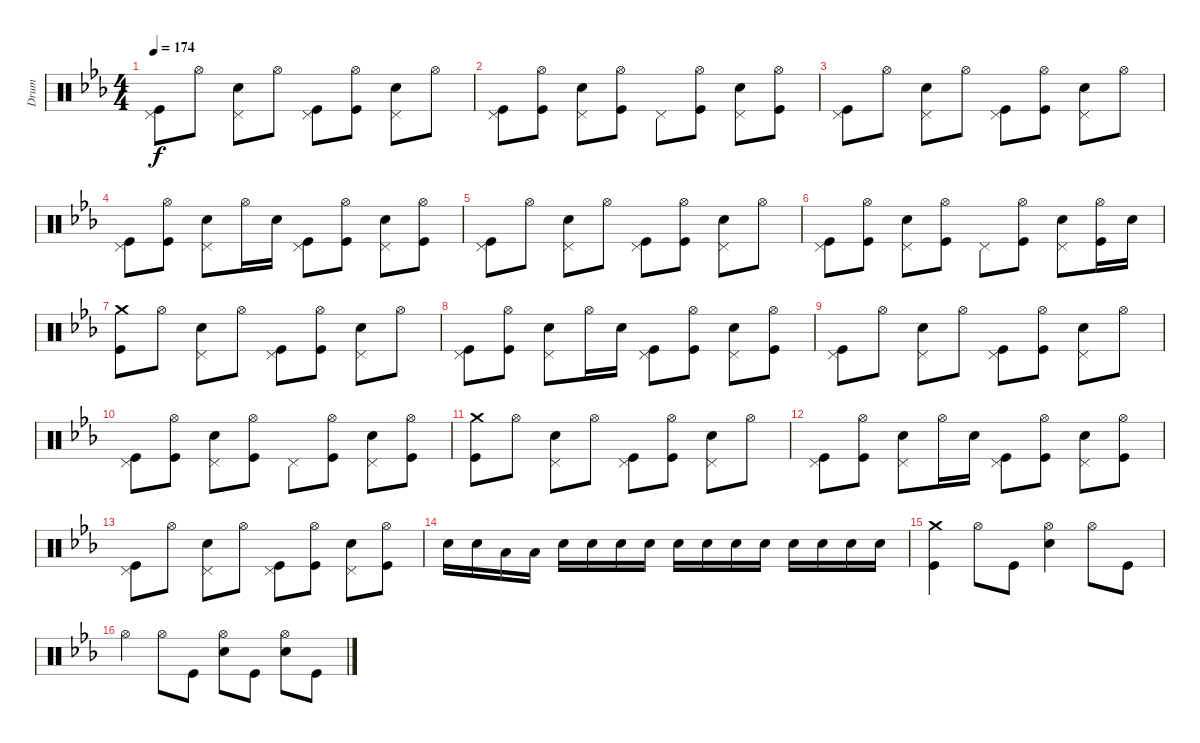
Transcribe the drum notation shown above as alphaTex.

\track ("Drum" "Drum") {instrument percussion}
\staff {score}
\articulation defaults
\ts (4 4)
\tempo 174
\clef neutral
\ks eb
("Pedal Hi-Hat (hit)" "Kick (hit)").8{dy f} "Hi-Hat (open)".8 ("Pedal Hi-Hat (hit)" "Snare (hit) 2").8 "Hi-Hat (open)".8 ("Pedal Hi-Hat (hit)" "Kick (hit)").8 ("Hi-Hat (open)" "Kick (hit)").8 ("Pedal Hi-Hat (hit)" "Snare (hit) 2").8 "Hi-Hat (open)".8 |
("Pedal Hi-Hat (hit)" "Kick (hit)").8 ("Hi-Hat (open)" "Kick (hit)").8 ("Pedal Hi-Hat (hit)" "Snare (hit) 2").8 ("Hi-Hat (open)" "Kick (hit)").8 "Pedal Hi-Hat (hit)".8 ("Hi-Hat (open)" "Kick (hit)").8 ("Pedal Hi-Hat (hit)" "Snare (hit) 2").8 ("Hi-Hat (open)" "Kick (hit)").8 |
("Pedal Hi-Hat (hit)" "Kick (hit)").8 "Hi-Hat (open)".8 ("Pedal Hi-Hat (hit)" "Snare (hit) 2").8 "Hi-Hat (open)".8 ("Pedal Hi-Hat (hit)" "Kick (hit)").8 ("Hi-Hat (open)" "Kick (hit)").8 ("Pedal Hi-Hat (hit)" "Snare (hit) 2").8 "Hi-Hat (open)".8 |
("Pedal Hi-Hat (hit)" "Kick (hit)").8 ("Hi-Hat (open)" "Kick (hit)").8 ("Pedal Hi-Hat (hit)" "Snare (hit) 2").8 "Hi-Hat (open)".16 "Snare (hit) 2".16 ("Pedal Hi-Hat (hit)" "Kick (hit)").8 ("Hi-Hat (open)" "Kick (hit)").8 ("Pedal Hi-Hat (hit)" "Snare (hit) 2").8 ("Hi-Hat (open)" "Kick (hit)").8 |
("Pedal Hi-Hat (hit)" "Kick (hit)").8 "Hi-Hat (open)".8 ("Pedal Hi-Hat (hit)" "Snare (hit) 2").8 "Hi-Hat (open)".8 ("Pedal Hi-Hat (hit)" "Kick (hit)").8 ("Hi-Hat (open)" "Kick (hit)").8 ("Pedal Hi-Hat (hit)" "Snare (hit) 2").8 "Hi-Hat (open)".8 |
("Pedal Hi-Hat (hit)" "Kick (hit)").8 ("Hi-Hat (open)" "Kick (hit)").8 ("Pedal Hi-Hat (hit)" "Snare (hit) 2").8 ("Hi-Hat (open)" "Kick (hit)").8 "Pedal Hi-Hat (hit)".8 ("Hi-Hat (open)" "Kick (hit)").8 ("Pedal Hi-Hat (hit)" "Snare (hit) 2").8 ("Hi-Hat (open)" "Kick (hit)").16 "Snare (hit) 2".16 |
("Crash medium (hit)" "Kick (hit)").8 "Hi-Hat (open)".8 ("Pedal Hi-Hat (hit)" "Snare (hit) 2").8 "Hi-Hat (open)".8 ("Pedal Hi-Hat (hit)" "Kick (hit)").8 ("Hi-Hat (open)" "Kick (hit)").8 ("Pedal Hi-Hat (hit)" "Snare (hit) 2").8 "Hi-Hat (open)".8 |
("Pedal Hi-Hat (hit)" "Kick (hit)").8 ("Hi-Hat (open)" "Kick (hit)").8 ("Pedal Hi-Hat (hit)" "Snare (hit) 2").8 "Hi-Hat (open)".16 "Snare (hit) 2".16 ("Pedal Hi-Hat (hit)" "Kick (hit)").8 ("Hi-Hat (open)" "Kick (hit)").8 ("Pedal Hi-Hat (hit)" "Snare (hit) 2").8 ("Hi-Hat (open)" "Kick (hit)").8 |
("Pedal Hi-Hat (hit)" "Kick (hit)").8 "Hi-Hat (open)".8 ("Pedal Hi-Hat (hit)" "Snare (hit) 2").8 "Hi-Hat (open)".8 ("Pedal Hi-Hat (hit)" "Kick (hit)").8 ("Hi-Hat (open)" "Kick (hit)").8 ("Pedal Hi-Hat (hit)" "Snare (hit) 2").8 "Hi-Hat (open)".8 |
("Pedal Hi-Hat (hit)" "Kick (hit)").8 ("Hi-Hat (open)" "Kick (hit)").8 ("Pedal Hi-Hat (hit)" "Snare (hit) 2").8 ("Hi-Hat (open)" "Kick (hit)").8 "Pedal Hi-Hat (hit)".8 ("Hi-Hat (open)" "Kick (hit)").8 ("Pedal Hi-Hat (hit)" "Snare (hit) 2").8 ("Hi-Hat (open)" "Kick (hit)").8 |
("Crash medium (hit)" "Kick (hit)").8 "Hi-Hat (open)".8 ("Pedal Hi-Hat (hit)" "Snare (hit) 2").8 "Hi-Hat (open)".8 ("Pedal Hi-Hat (hit)" "Kick (hit)").8 ("Hi-Hat (open)" "Kick (hit)").8 ("Pedal Hi-Hat (hit)" "Snare (hit) 2").8 "Hi-Hat (open)".8 |
("Pedal Hi-Hat (hit)" "Kick (hit)").8 ("Hi-Hat (open)" "Kick (hit)").8 ("Pedal Hi-Hat (hit)" "Snare (hit) 2").8 "Hi-Hat (open)".16 "Snare (hit) 2".16 ("Pedal Hi-Hat (hit)" "Kick (hit)").8 ("Hi-Hat (open)" "Kick (hit)").8 ("Pedal Hi-Hat (hit)" "Snare (hit) 2").8 ("Hi-Hat (open)" "Kick (hit)").8 |
("Pedal Hi-Hat (hit)" "Kick (hit)").8 "Hi-Hat (open)".8 ("Pedal Hi-Hat (hit)" "Snare (hit) 2").8 "Hi-Hat (open)".8 ("Pedal Hi-Hat (hit)" "Kick (hit)").8 ("Hi-Hat (open)" "Kick (hit)").8 ("Pedal Hi-Hat (hit)" "Snare (hit) 2").8 ("Hi-Hat (open)" "Kick (hit)").8 |
"Snare (hit) 2".16 "Snare (hit) 2".16 "Low Tom (hit)".16 "Low Tom (hit)".16 "Snare (hit) 2".16 "Snare (hit) 2".16 "Snare (hit) 2".16 "Snare (hit) 2".16 "Snare (hit) 2".16 "Snare (hit) 2".16 "Snare (hit) 2".16 "Snare (hit) 2".16 "Snare (hit) 2".16 "Snare (hit) 2".16 "Snare (hit) 2".16 "Snare (hit) 2".16 |
("Crash medium (hit)" "Kick (hit)").4 "Hi-Hat (open)".8 "Kick (hit)".8 ("Hi-Hat (open)" "Snare (hit) 2").4 "Hi-Hat (open)".8 "Kick (hit)".8 |
"Hi-Hat (open)".4 "Hi-Hat (open)".8 "Kick (hit)".8 ("Hi-Hat (open)" "Snare (hit) 2").8 "Kick (hit)".8 ("Hi-Hat (open)" "Snare (hit) 2").8 "Kick (hit)".8
